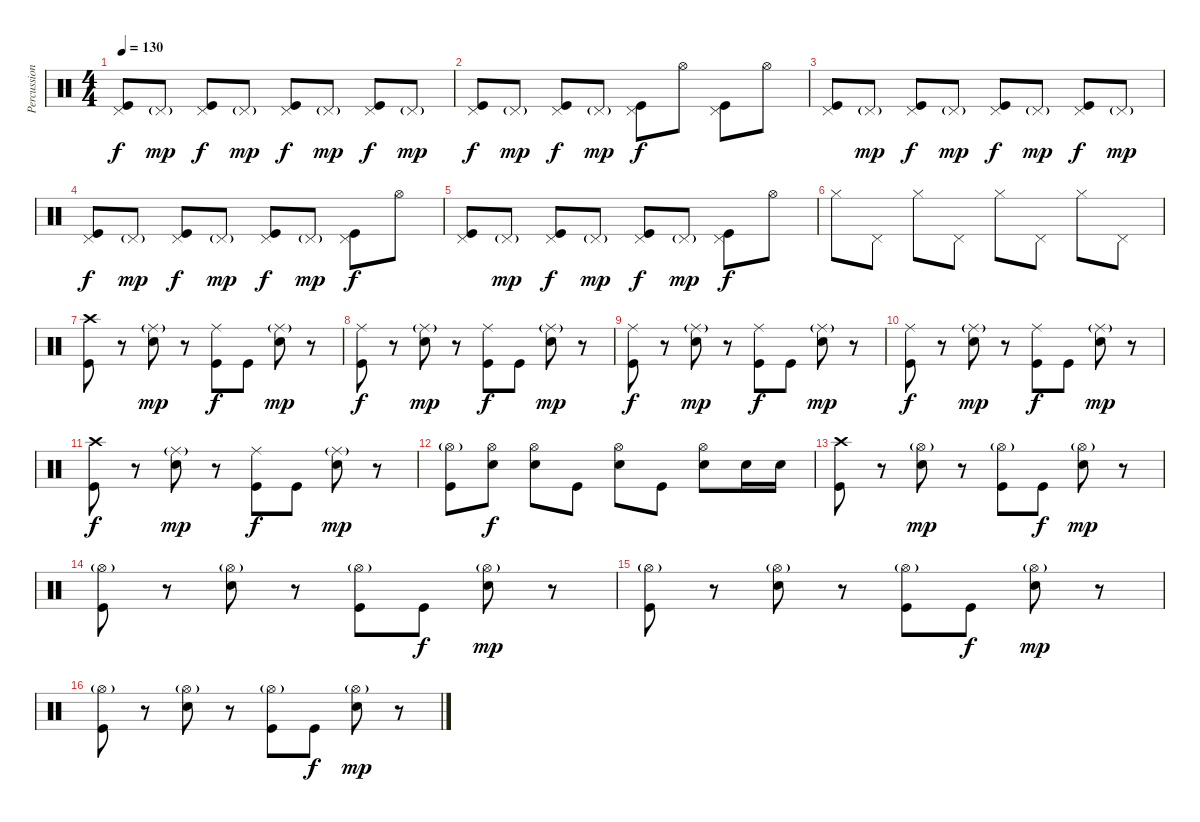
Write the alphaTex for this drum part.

\track ("Percussion" "Percussion") {instrument percussion}
\staff {score}
\articulation defaults
\ts (4 4)
\tempo 130
\clef neutral
\ks c
("Pedal Hi-Hat (hit)" "Kick (hit)").8{dy f} "Pedal Hi-Hat (hit)"{g}.8{dy mp} ("Pedal Hi-Hat (hit)" "Kick (hit)").8{dy f} "Pedal Hi-Hat (hit)"{g}.8{dy mp} ("Pedal Hi-Hat (hit)" "Kick (hit)").8{dy f} "Pedal Hi-Hat (hit)"{g}.8{dy mp} ("Pedal Hi-Hat (hit)" "Kick (hit)").8{dy f} "Pedal Hi-Hat (hit)"{g}.8{dy mp} |
("Pedal Hi-Hat (hit)" "Kick (hit)").8{dy f} "Pedal Hi-Hat (hit)"{g}.8{dy mp} ("Pedal Hi-Hat (hit)" "Kick (hit)").8{dy f} "Pedal Hi-Hat (hit)"{g}.8{dy mp} ("Pedal Hi-Hat (hit)" "Kick (hit)").8{dy f} "Hi-Hat (open)".8 ("Pedal Hi-Hat (hit)" "Kick (hit)").8 "Hi-Hat (open)".8 |
("Pedal Hi-Hat (hit)" "Kick (hit)").8 "Pedal Hi-Hat (hit)"{g}.8{dy mp} ("Pedal Hi-Hat (hit)" "Kick (hit)").8{dy f} "Pedal Hi-Hat (hit)"{g}.8{dy mp} ("Pedal Hi-Hat (hit)" "Kick (hit)").8{dy f} "Pedal Hi-Hat (hit)"{g}.8{dy mp} ("Pedal Hi-Hat (hit)" "Kick (hit)").8{dy f} "Pedal Hi-Hat (hit)"{g}.8{dy mp} |
("Pedal Hi-Hat (hit)" "Kick (hit)").8{dy f} "Pedal Hi-Hat (hit)"{g}.8{dy mp} ("Pedal Hi-Hat (hit)" "Kick (hit)").8{dy f} "Pedal Hi-Hat (hit)"{g}.8{dy mp} ("Pedal Hi-Hat (hit)" "Kick (hit)").8{dy f} "Pedal Hi-Hat (hit)"{g}.8{dy mp} ("Pedal Hi-Hat (hit)" "Kick (hit)").8{dy f} "Hi-Hat (open)".8 |
("Pedal Hi-Hat (hit)" "Kick (hit)").8 "Pedal Hi-Hat (hit)"{g}.8{dy mp} ("Pedal Hi-Hat (hit)" "Kick (hit)").8{dy f} "Pedal Hi-Hat (hit)"{g}.8{dy mp} ("Pedal Hi-Hat (hit)" "Kick (hit)").8{dy f} "Pedal Hi-Hat (hit)"{g}.8{dy mp} ("Pedal Hi-Hat (hit)" "Kick (hit)").8{dy f} "Hi-Hat (open)".8 |
"Hi-Hat (closed)".8 "Pedal Hi-Hat (hit)".8 "Hi-Hat (closed)".8 "Pedal Hi-Hat (hit)".8 "Hi-Hat (closed)".8 "Pedal Hi-Hat (hit)".8 "Hi-Hat (closed)".8 "Pedal Hi-Hat (hit)".8 |
("Crash high (hit)" "Kick (hit)").8 r.8 ("Ride (middle)"{g} "Electric Snare (hit)").8{dy mp} r.8 ("Ride (middle)" "Kick (hit)").8{dy f} "Kick (hit)".8 ("Ride (middle)"{g} "Electric Snare (hit)").8{dy mp} r.8 |
("Ride (middle)" "Kick (hit)").8{dy f} r.8 ("Ride (middle)"{g} "Electric Snare (hit)").8{dy mp} r.8 ("Ride (middle)" "Kick (hit)").8{dy f} "Kick (hit)".8 ("Ride (middle)"{g} "Electric Snare (hit)").8{dy mp} r.8 |
("Ride (middle)" "Kick (hit)").8{dy f} r.8 ("Ride (middle)"{g} "Electric Snare (hit)").8{dy mp} r.8 ("Ride (middle)" "Kick (hit)").8{dy f} "Kick (hit)".8 ("Ride (middle)"{g} "Electric Snare (hit)").8{dy mp} r.8 |
("Ride (middle)" "Kick (hit)").8{dy f} r.8 ("Ride (middle)"{g} "Electric Snare (hit)").8{dy mp} r.8 ("Ride (middle)" "Kick (hit)").8{dy f} "Kick (hit)".8 ("Ride (middle)"{g} "Electric Snare (hit)").8{dy mp} r.8 |
("Crash high (hit)" "Kick (hit)").8{dy f} r.8 ("Ride (middle)"{g} "Electric Snare (hit)").8{dy mp} r.8 ("Ride (middle)" "Kick (hit)").8{dy f} "Kick (hit)".8 ("Ride (middle)"{g} "Electric Snare (hit)").8{dy mp} r.8 |
("Hi-Hat (open)"{g} "Kick (hit)").8 ("Hi-Hat (open)" "Electric Snare (hit)").8{dy f} ("Hi-Hat (open)" "Electric Snare (hit)").8 "Kick (hit)".8 ("Hi-Hat (open)" "Electric Snare (hit)").8 "Kick (hit)".8 ("Hi-Hat (open)" "Electric Snare (hit)").8 "Electric Snare (hit)".16 "Electric Snare (hit)".16 |
("Crash high (hit)" "Kick (hit)").8 r.8 ("Hi-Hat (open)"{g} "Electric Snare (hit)").8{dy mp} r.8 ("Hi-Hat (open)"{g} "Kick (hit)").8 "Kick (hit)".8{dy f} ("Hi-Hat (open)"{g} "Electric Snare (hit)").8{dy mp} r.8 |
("Hi-Hat (open)"{g} "Kick (hit)").8 r.8 ("Hi-Hat (open)"{g} "Electric Snare (hit)").8 r.8 ("Hi-Hat (open)"{g} "Kick (hit)").8 "Kick (hit)".8{dy f} ("Hi-Hat (open)"{g} "Electric Snare (hit)").8{dy mp} r.8 |
("Hi-Hat (open)"{g} "Kick (hit)").8 r.8 ("Hi-Hat (open)"{g} "Electric Snare (hit)").8 r.8 ("Hi-Hat (open)"{g} "Kick (hit)").8 "Kick (hit)".8{dy f} ("Hi-Hat (open)"{g} "Electric Snare (hit)").8{dy mp} r.8 |
("Hi-Hat (open)"{g} "Kick (hit)").8 r.8 ("Hi-Hat (open)"{g} "Electric Snare (hit)").8 r.8 ("Hi-Hat (open)"{g} "Kick (hit)").8 "Kick (hit)".8{dy f} ("Hi-Hat (open)"{g} "Electric Snare (hit)").8{dy mp} r.8
